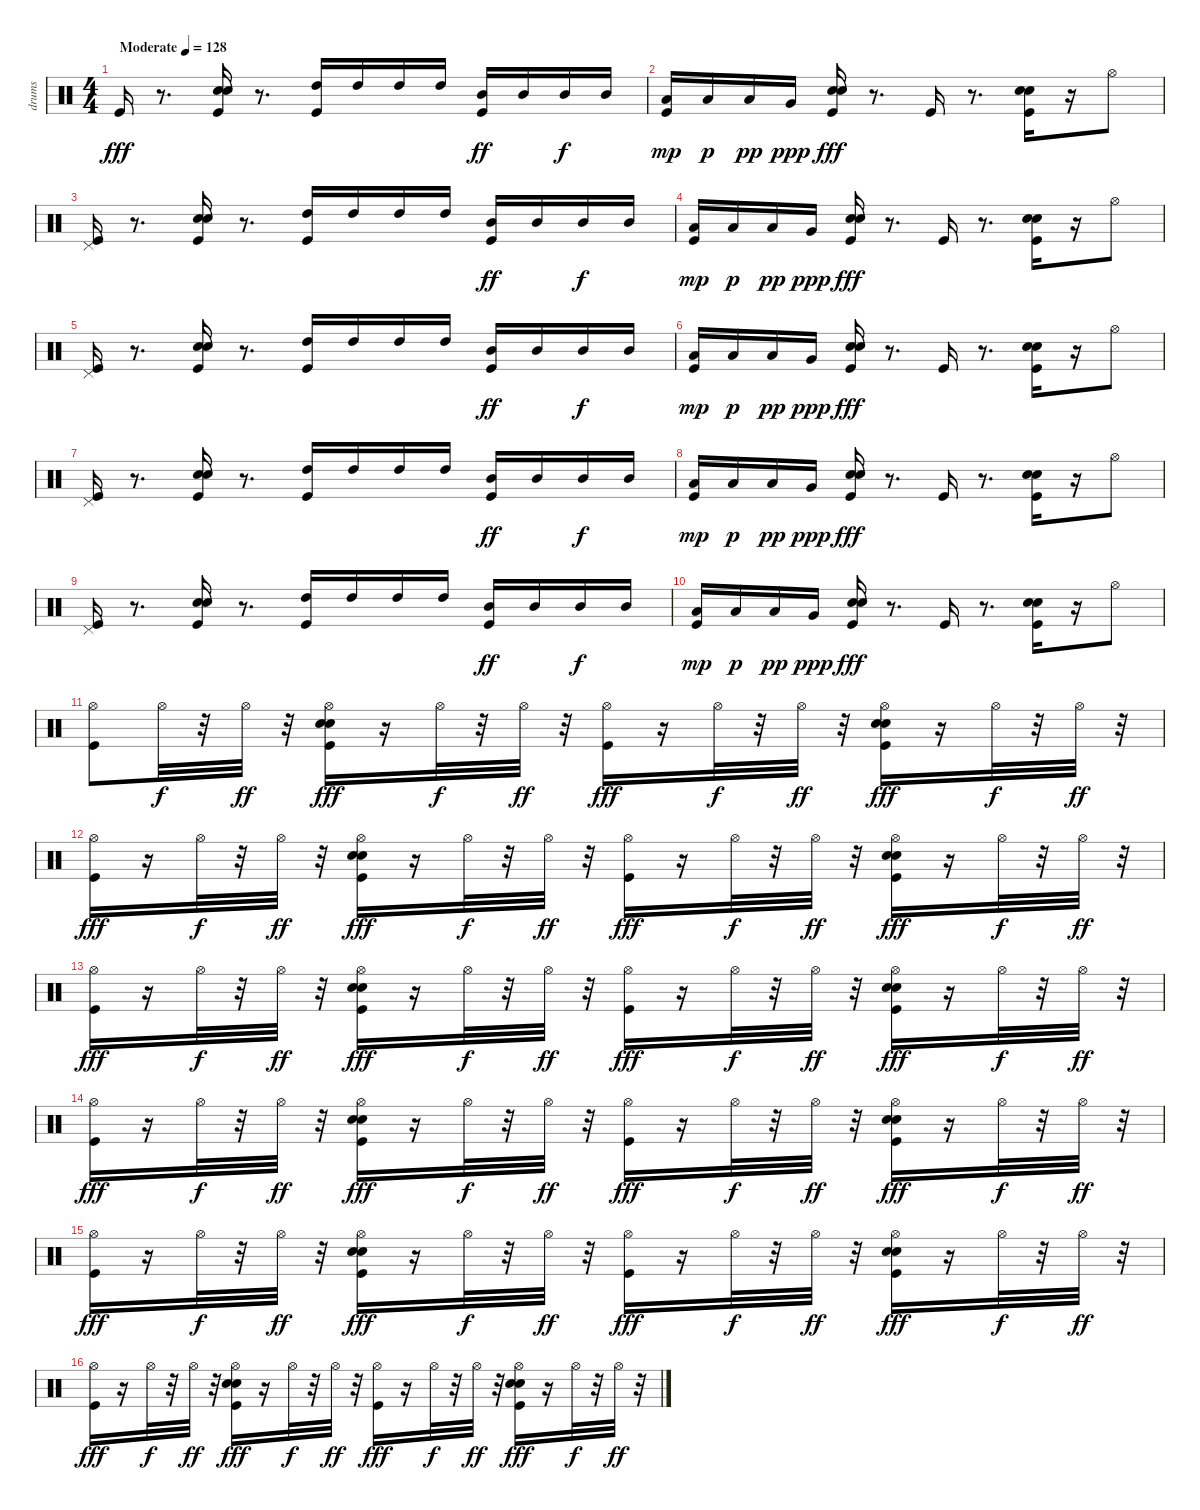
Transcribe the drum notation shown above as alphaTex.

\track ("drums" "drums") {instrument percussion}
\staff {score}
\articulation defaults
\ts (4 4)
\tempo (128 "Moderate")
\clef neutral
\ks c "Kick (hit)".16{dy fff}
r.8{d} ("Electric Snare (hit)" "Snare (hit) 2" "Kick (hit)").16 r.8{d} ("Kick (hit)" "High Tom (hit)").16 "High Tom (hit)".16 "High Tom (hit)".16 "High Tom (hit)".16 ("Kick (hit)" "Mid Tom (hit)").16{dy ff} "Mid Tom (hit)".16 "Mid Tom (hit)".16{dy f} "Mid Tom (hit)".16 |
("Kick (hit)" "Low Tom (hit)").16{dy mp} "Low Tom (hit)".16{dy p} "Low Tom (hit)".16{dy pp} "Very Low Tom (hit)".16{dy ppp} ("Electric Snare (hit)" "Snare (hit) 2" "Kick (hit)").16{dy fff} r.8{d} "Kick (hit)".16 r.8{d} ("Electric Snare (hit)" "Snare (hit) 2" "Kick (hit)").16 r.16 "Hi-Hat (open)".8 |
("Kick (hit)" "Pedal Hi-Hat (hit)").16 r.8{d} ("Electric Snare (hit)" "Snare (hit) 2" "Kick (hit)").16 r.8{d} ("Kick (hit)" "High Tom (hit)").16 "High Tom (hit)".16 "High Tom (hit)".16 "High Tom (hit)".16 ("Kick (hit)" "Mid Tom (hit)").16{dy ff} "Mid Tom (hit)".16 "Mid Tom (hit)".16{dy f} "Mid Tom (hit)".16 |
("Kick (hit)" "Low Tom (hit)").16{dy mp} "Low Tom (hit)".16{dy p} "Low Tom (hit)".16{dy pp} "Very Low Tom (hit)".16{dy ppp} ("Electric Snare (hit)" "Snare (hit) 2" "Kick (hit)").16{dy fff} r.8{d} "Kick (hit)".16 r.8{d} ("Electric Snare (hit)" "Snare (hit) 2" "Kick (hit)").16 r.16 "Hi-Hat (open)".8 |
("Kick (hit)" "Pedal Hi-Hat (hit)").16 r.8{d} ("Electric Snare (hit)" "Snare (hit) 2" "Kick (hit)").16 r.8{d} ("Kick (hit)" "High Tom (hit)").16 "High Tom (hit)".16 "High Tom (hit)".16 "High Tom (hit)".16 ("Kick (hit)" "Mid Tom (hit)").16{dy ff} "Mid Tom (hit)".16 "Mid Tom (hit)".16{dy f} "Mid Tom (hit)".16 |
("Kick (hit)" "Low Tom (hit)").16{dy mp} "Low Tom (hit)".16{dy p} "Low Tom (hit)".16{dy pp} "Very Low Tom (hit)".16{dy ppp} ("Electric Snare (hit)" "Snare (hit) 2" "Kick (hit)").16{dy fff} r.8{d} "Kick (hit)".16 r.8{d} ("Electric Snare (hit)" "Snare (hit) 2" "Kick (hit)").16 r.16 "Hi-Hat (open)".8 |
("Kick (hit)" "Pedal Hi-Hat (hit)").16 r.8{d} ("Electric Snare (hit)" "Snare (hit) 2" "Kick (hit)").16 r.8{d} ("Kick (hit)" "High Tom (hit)").16 "High Tom (hit)".16 "High Tom (hit)".16 "High Tom (hit)".16 ("Kick (hit)" "Mid Tom (hit)").16{dy ff} "Mid Tom (hit)".16 "Mid Tom (hit)".16{dy f} "Mid Tom (hit)".16 |
("Kick (hit)" "Low Tom (hit)").16{dy mp} "Low Tom (hit)".16{dy p} "Low Tom (hit)".16{dy pp} "Very Low Tom (hit)".16{dy ppp} ("Electric Snare (hit)" "Snare (hit) 2" "Kick (hit)").16{dy fff} r.8{d} "Kick (hit)".16 r.8{d} ("Electric Snare (hit)" "Snare (hit) 2" "Kick (hit)").16 r.16 "Hi-Hat (open)".8 |
("Kick (hit)" "Pedal Hi-Hat (hit)").16 r.8{d} ("Electric Snare (hit)" "Snare (hit) 2" "Kick (hit)").16 r.8{d} ("Kick (hit)" "High Tom (hit)").16 "High Tom (hit)".16 "High Tom (hit)".16 "High Tom (hit)".16 ("Kick (hit)" "Mid Tom (hit)").16{dy ff} "Mid Tom (hit)".16 "Mid Tom (hit)".16{dy f} "Mid Tom (hit)".16 |
("Kick (hit)" "Low Tom (hit)").16{dy mp} "Low Tom (hit)".16{dy p} "Low Tom (hit)".16{dy pp} "Very Low Tom (hit)".16{dy ppp} ("Electric Snare (hit)" "Snare (hit) 2" "Kick (hit)").16{dy fff} r.8{d} "Kick (hit)".16 r.8{d} ("Electric Snare (hit)" "Snare (hit) 2" "Kick (hit)").16 r.16 "Hi-Hat (open)".8 |
("Kick (hit)" "Hi-Hat (open)").8 "Hi-Hat (open)".32{dy f} r.32 "Hi-Hat (open)".32{dy ff} r.32 ("Snare (hit) 2" "Electric Snare (hit)" "Kick (hit)" "Hi-Hat (open)").16{dy fff} r.16 "Hi-Hat (open)".32{dy f} r.32 "Hi-Hat (open)".32{dy ff} r.32 ("Kick (hit)" "Hi-Hat (open)").16{dy fff} r.16 "Hi-Hat (open)".32{dy f} r.32 "Hi-Hat (open)".32{dy ff} r.32 ("Kick (hit)" "Snare (hit) 2" "Electric Snare (hit)" "Hi-Hat (open)").16{dy fff} r.16 "Hi-Hat (open)".32{dy f} r.32 "Hi-Hat (open)".32{dy ff} r.32 |
("Kick (hit)" "Hi-Hat (open)").16{dy fff} r.16 "Hi-Hat (open)".32{dy f} r.32 "Hi-Hat (open)".32{dy ff} r.32 ("Snare (hit) 2" "Electric Snare (hit)" "Kick (hit)" "Hi-Hat (open)").16{dy fff} r.16 "Hi-Hat (open)".32{dy f} r.32 "Hi-Hat (open)".32{dy ff} r.32 ("Kick (hit)" "Hi-Hat (open)").16{dy fff} r.16 "Hi-Hat (open)".32{dy f} r.32 "Hi-Hat (open)".32{dy ff} r.32 ("Kick (hit)" "Snare (hit) 2" "Electric Snare (hit)" "Hi-Hat (open)").16{dy fff} r.16 "Hi-Hat (open)".32{dy f} r.32 "Hi-Hat (open)".32{dy ff} r.32 |
("Hi-Hat (open)" "Kick (hit)").16{dy fff} r.16 "Hi-Hat (open)".32{dy f} r.32 "Hi-Hat (open)".32{dy ff} r.32 ("Snare (hit) 2" "Electric Snare (hit)" "Kick (hit)" "Hi-Hat (open)").16{dy fff} r.16 "Hi-Hat (open)".32{dy f} r.32 "Hi-Hat (open)".32{dy ff} r.32 ("Kick (hit)" "Hi-Hat (open)").16{dy fff} r.16 "Hi-Hat (open)".32{dy f} r.32 "Hi-Hat (open)".32{dy ff} r.32 ("Kick (hit)" "Snare (hit) 2" "Electric Snare (hit)" "Hi-Hat (open)").16{dy fff} r.16 "Hi-Hat (open)".32{dy f} r.32 "Hi-Hat (open)".32{dy ff} r.32 |
("Hi-Hat (open)" "Kick (hit)").16{dy fff} r.16 "Hi-Hat (open)".32{dy f} r.32 "Hi-Hat (open)".32{dy ff} r.32 ("Snare (hit) 2" "Electric Snare (hit)" "Kick (hit)" "Hi-Hat (open)").16{dy fff} r.16 "Hi-Hat (open)".32{dy f} r.32 "Hi-Hat (open)".32{dy ff} r.32 ("Kick (hit)" "Hi-Hat (open)").16{dy fff} r.16 "Hi-Hat (open)".32{dy f} r.32 "Hi-Hat (open)".32{dy ff} r.32 ("Kick (hit)" "Snare (hit) 2" "Electric Snare (hit)" "Hi-Hat (open)").16{dy fff} r.16 "Hi-Hat (open)".32{dy f} r.32 "Hi-Hat (open)".32{dy ff} r.32 |
("Kick (hit)" "Hi-Hat (open)").16{dy fff} r.16 "Hi-Hat (open)".32{dy f} r.32 "Hi-Hat (open)".32{dy ff} r.32 ("Snare (hit) 2" "Electric Snare (hit)" "Kick (hit)" "Hi-Hat (open)").16{dy fff} r.16 "Hi-Hat (open)".32{dy f} r.32 "Hi-Hat (open)".32{dy ff} r.32 ("Kick (hit)" "Hi-Hat (open)").16{dy fff} r.16 "Hi-Hat (open)".32{dy f} r.32 "Hi-Hat (open)".32{dy ff} r.32 ("Kick (hit)" "Snare (hit) 2" "Electric Snare (hit)" "Hi-Hat (open)").16{dy fff} r.16 "Hi-Hat (open)".32{dy f} r.32 "Hi-Hat (open)".32{dy ff} r.32 |
("Kick (hit)" "Hi-Hat (open)").16{dy fff} r.16 "Hi-Hat (open)".32{dy f} r.32 "Hi-Hat (open)".32{dy ff} r.32 ("Snare (hit) 2" "Electric Snare (hit)" "Kick (hit)" "Hi-Hat (open)").16{dy fff} r.16 "Hi-Hat (open)".32{dy f} r.32 "Hi-Hat (open)".32{dy ff} r.32 ("Kick (hit)" "Hi-Hat (open)").16{dy fff} r.16 "Hi-Hat (open)".32{dy f} r.32 "Hi-Hat (open)".32{dy ff} r.32 ("Kick (hit)" "Snare (hit) 2" "Electric Snare (hit)" "Hi-Hat (open)").16{dy fff} r.16 "Hi-Hat (open)".32{dy f} r.32 "Hi-Hat (open)".32{dy ff} r.32
